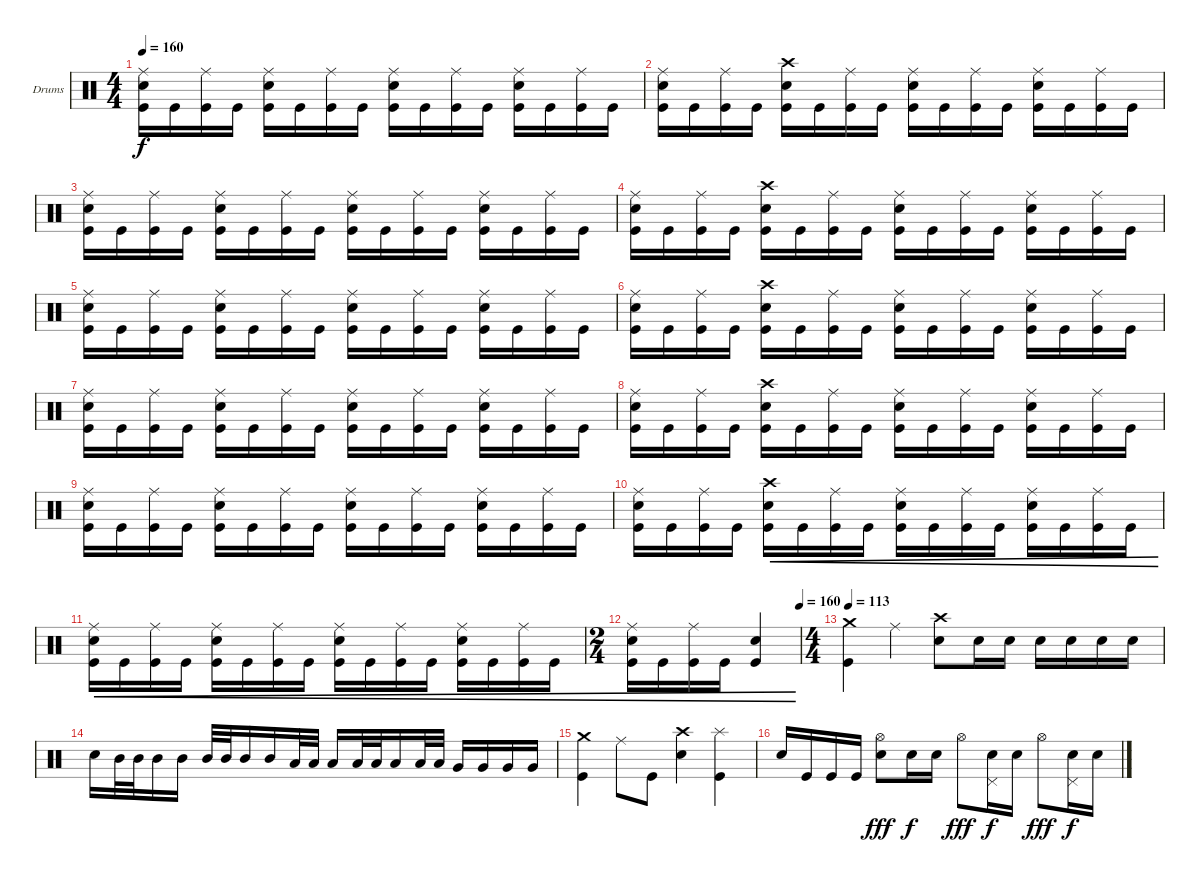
\defaultSystemsLayout 4
\bracketExtendMode groupsimilarinstruments
\firstSystemTrackNameOrientation horizontal
\otherSystemsTrackNameOrientation horizontal
\track ("Drumkit" "Drums") {instrument percussion}
\staff {score}
\articulation defaults
\ts (4 4)
\tempo 160
\clef neutral
\ks c
("Ride (middle)" "Snare (hit) 2" "Kick (hit)").16{dy f} "Kick (hit)".16 ("Ride (middle)" "Kick (hit)").16 "Kick (hit)".16 ("Snare (hit) 2" "Ride (middle)" "Kick (hit)").16 "Kick (hit)".16 ("Ride (middle)" "Kick (hit)").16 "Kick (hit)".16 ("Snare (hit) 2" "Ride (middle)" "Kick (hit)").16 "Kick (hit)".16 ("Ride (middle)" "Kick (hit)").16 "Kick (hit)".16 ("Snare (hit) 2" "Ride (middle)" "Kick (hit)").16 "Kick (hit)".16 ("Ride (middle)" "Kick (hit)").16 "Kick (hit)".16 |
("Ride (middle)" "Snare (hit) 2" "Kick (hit)").16 "Kick (hit)".16 ("Ride (middle)" "Kick (hit)").16 "Kick (hit)".16 ("Crash high (hit)" "Snare (hit) 2" "Kick (hit)").16 "Kick (hit)".16 ("Ride (middle)" "Kick (hit)").16 "Kick (hit)".16 ("Snare (hit) 2" "Ride (middle)" "Kick (hit)").16 "Kick (hit)".16 ("Ride (middle)" "Kick (hit)").16 "Kick (hit)".16 ("Snare (hit) 2" "Ride (middle)" "Kick (hit)").16 "Kick (hit)".16 ("Ride (middle)" "Kick (hit)").16 "Kick (hit)".16 |
("Ride (middle)" "Snare (hit) 2" "Kick (hit)").16 "Kick (hit)".16 ("Ride (middle)" "Kick (hit)").16 "Kick (hit)".16 ("Snare (hit) 2" "Ride (middle)" "Kick (hit)").16 "Kick (hit)".16 ("Ride (middle)" "Kick (hit)").16 "Kick (hit)".16 ("Snare (hit) 2" "Ride (middle)" "Kick (hit)").16 "Kick (hit)".16 ("Ride (middle)" "Kick (hit)").16 "Kick (hit)".16 ("Snare (hit) 2" "Ride (middle)" "Kick (hit)").16 "Kick (hit)".16 ("Ride (middle)" "Kick (hit)").16 "Kick (hit)".16 |
("Ride (middle)" "Snare (hit) 2" "Kick (hit)").16 "Kick (hit)".16 ("Ride (middle)" "Kick (hit)").16 "Kick (hit)".16 ("Crash high (hit)" "Snare (hit) 2" "Kick (hit)").16 "Kick (hit)".16 ("Ride (middle)" "Kick (hit)").16 "Kick (hit)".16 ("Snare (hit) 2" "Ride (middle)" "Kick (hit)").16 "Kick (hit)".16 ("Ride (middle)" "Kick (hit)").16 "Kick (hit)".16 ("Snare (hit) 2" "Ride (middle)" "Kick (hit)").16 "Kick (hit)".16 ("Ride (middle)" "Kick (hit)").16 "Kick (hit)".16 |
("Ride (middle)" "Snare (hit) 2" "Kick (hit)").16 "Kick (hit)".16 ("Ride (middle)" "Kick (hit)").16 "Kick (hit)".16 ("Snare (hit) 2" "Ride (middle)" "Kick (hit)").16 "Kick (hit)".16 ("Ride (middle)" "Kick (hit)").16 "Kick (hit)".16 ("Snare (hit) 2" "Ride (middle)" "Kick (hit)").16 "Kick (hit)".16 ("Ride (middle)" "Kick (hit)").16 "Kick (hit)".16 ("Snare (hit) 2" "Ride (middle)" "Kick (hit)").16 "Kick (hit)".16 ("Ride (middle)" "Kick (hit)").16 "Kick (hit)".16 |
("Ride (middle)" "Snare (hit) 2" "Kick (hit)").16 "Kick (hit)".16 ("Ride (middle)" "Kick (hit)").16 "Kick (hit)".16 ("Crash high (hit)" "Snare (hit) 2" "Kick (hit)").16 "Kick (hit)".16 ("Ride (middle)" "Kick (hit)").16 "Kick (hit)".16 ("Snare (hit) 2" "Ride (middle)" "Kick (hit)").16 "Kick (hit)".16 ("Ride (middle)" "Kick (hit)").16 "Kick (hit)".16 ("Snare (hit) 2" "Ride (middle)" "Kick (hit)").16 "Kick (hit)".16 ("Ride (middle)" "Kick (hit)").16 "Kick (hit)".16 |
("Ride (middle)" "Snare (hit) 2" "Kick (hit)").16 "Kick (hit)".16 ("Ride (middle)" "Kick (hit)").16 "Kick (hit)".16 ("Snare (hit) 2" "Ride (middle)" "Kick (hit)").16 "Kick (hit)".16 ("Ride (middle)" "Kick (hit)").16 "Kick (hit)".16 ("Snare (hit) 2" "Ride (middle)" "Kick (hit)").16 "Kick (hit)".16 ("Ride (middle)" "Kick (hit)").16 "Kick (hit)".16 ("Snare (hit) 2" "Ride (middle)" "Kick (hit)").16 "Kick (hit)".16 ("Ride (middle)" "Kick (hit)").16 "Kick (hit)".16 |
("Ride (middle)" "Snare (hit) 2" "Kick (hit)").16 "Kick (hit)".16 ("Ride (middle)" "Kick (hit)").16 "Kick (hit)".16 ("Crash high (hit)" "Snare (hit) 2" "Kick (hit)").16 "Kick (hit)".16 ("Ride (middle)" "Kick (hit)").16 "Kick (hit)".16 ("Snare (hit) 2" "Ride (middle)" "Kick (hit)").16 "Kick (hit)".16 ("Ride (middle)" "Kick (hit)").16 "Kick (hit)".16 ("Snare (hit) 2" "Ride (middle)" "Kick (hit)").16 "Kick (hit)".16 ("Ride (middle)" "Kick (hit)").16 "Kick (hit)".16 |
("Ride (middle)" "Snare (hit) 2" "Kick (hit)").16 "Kick (hit)".16 ("Ride (middle)" "Kick (hit)").16 "Kick (hit)".16 ("Snare (hit) 2" "Ride (middle)" "Kick (hit)").16 "Kick (hit)".16 ("Ride (middle)" "Kick (hit)").16 "Kick (hit)".16 ("Snare (hit) 2" "Ride (middle)" "Kick (hit)").16 "Kick (hit)".16 ("Ride (middle)" "Kick (hit)").16 "Kick (hit)".16 ("Snare (hit) 2" "Ride (middle)" "Kick (hit)").16 "Kick (hit)".16 ("Ride (middle)" "Kick (hit)").16 "Kick (hit)".16 |
("Ride (middle)" "Snare (hit) 2" "Kick (hit)").16 "Kick (hit)".16 ("Ride (middle)" "Kick (hit)").16 "Kick (hit)".16 ("Crash high (hit)" "Snare (hit) 2" "Kick (hit)").16{cre} "Kick (hit)".16{cre} ("Ride (middle)" "Kick (hit)").16{cre} "Kick (hit)".16{cre} ("Snare (hit) 2" "Ride (middle)" "Kick (hit)").16{cre} "Kick (hit)".16{cre} ("Ride (middle)" "Kick (hit)").16{cre} "Kick (hit)".16{cre} ("Snare (hit) 2" "Ride (middle)" "Kick (hit)").16{cre} "Kick (hit)".16{cre} ("Ride (middle)" "Kick (hit)").16{cre} "Kick (hit)".16{cre} |
("Ride (middle)" "Snare (hit) 2" "Kick (hit)").16{cre} "Kick (hit)".16{cre} ("Ride (middle)" "Kick (hit)").16{cre} "Kick (hit)".16{cre} ("Snare (hit) 2" "Ride (middle)" "Kick (hit)").16{cre} "Kick (hit)".16{cre} ("Ride (middle)" "Kick (hit)").16{cre} "Kick (hit)".16{cre} ("Snare (hit) 2" "Ride (middle)" "Kick (hit)").16{cre} "Kick (hit)".16{cre} ("Ride (middle)" "Kick (hit)").16{cre} "Kick (hit)".16{cre} ("Snare (hit) 2" "Ride (middle)" "Kick (hit)").16{cre} "Kick (hit)".16{cre} ("Ride (middle)" "Kick (hit)").16{cre} "Kick (hit)".16{cre} |
\ts (2 4)
\tempo (160 1)
("Ride (middle)" "Snare (hit) 2" "Kick (hit)").16{cre} "Kick (hit)".16{cre} ("Ride (middle)" "Kick (hit)").16{cre} "Kick (hit)".16{cre} ("Kick (hit)" "Snare (hit) 2").4{cre} |
\ts (4 4)
\tempo 113
("Crash medium (hit)" "Kick (hit)").4 "Ride (middle)".4 ("Crash high (hit)" "Snare (hit) 2").8 "Snare (hit) 2".16 "Snare (hit) 2".16 "Snare (hit) 2".16 "Snare (hit) 2".16 "Snare (hit) 2".16 "Snare (hit) 2".16 |
"Snare (hit) 2".16 "Mid Tom (hit)".32 "Mid Tom (hit)".32 "Mid Tom (hit)".16 "Mid Tom (hit)".16 "Mid Tom (hit)".32 "Mid Tom (hit)".32 "Mid Tom (hit)".16 "Mid Tom (hit)".16 "Low Tom (hit)".32 "Low Tom (hit)".32 "Low Tom (hit)".16 "Low Tom (hit)".32 "Low Tom (hit)".32 "Low Tom (hit)".16 "Low Tom (hit)".32 "Low Tom (hit)".32 "Very Low Tom (hit)".16 "Very Low Tom (hit)".16 "Very Low Tom (hit)".16 "Very Low Tom (hit)".16 |
("Crash medium (hit)" "Kick (hit)").4 "Ride (middle)".8 "Kick (hit)".8 ("Crash high (hit)" "Snare (hit) 2").4 ("Splash (hit)" "Kick (hit)").4 |
"Snare (hit) 2".16 "Kick (hit)".16 "Kick (hit)".16 "Kick (hit)".16 ("Hi-Hat (open)" "Snare (hit) 2").8{dy fff} "Snare (hit) 2".16{dy f} "Snare (hit) 2".16 "Hi-Hat (open)".8{dy fff} ("Pedal Hi-Hat (hit)" "Snare (hit) 2").16{dy f} "Snare (hit) 2".16 "Hi-Hat (open)".8{dy fff} ("Pedal Hi-Hat (hit)" "Snare (hit) 2").16{dy f} "Snare (hit) 2".16
